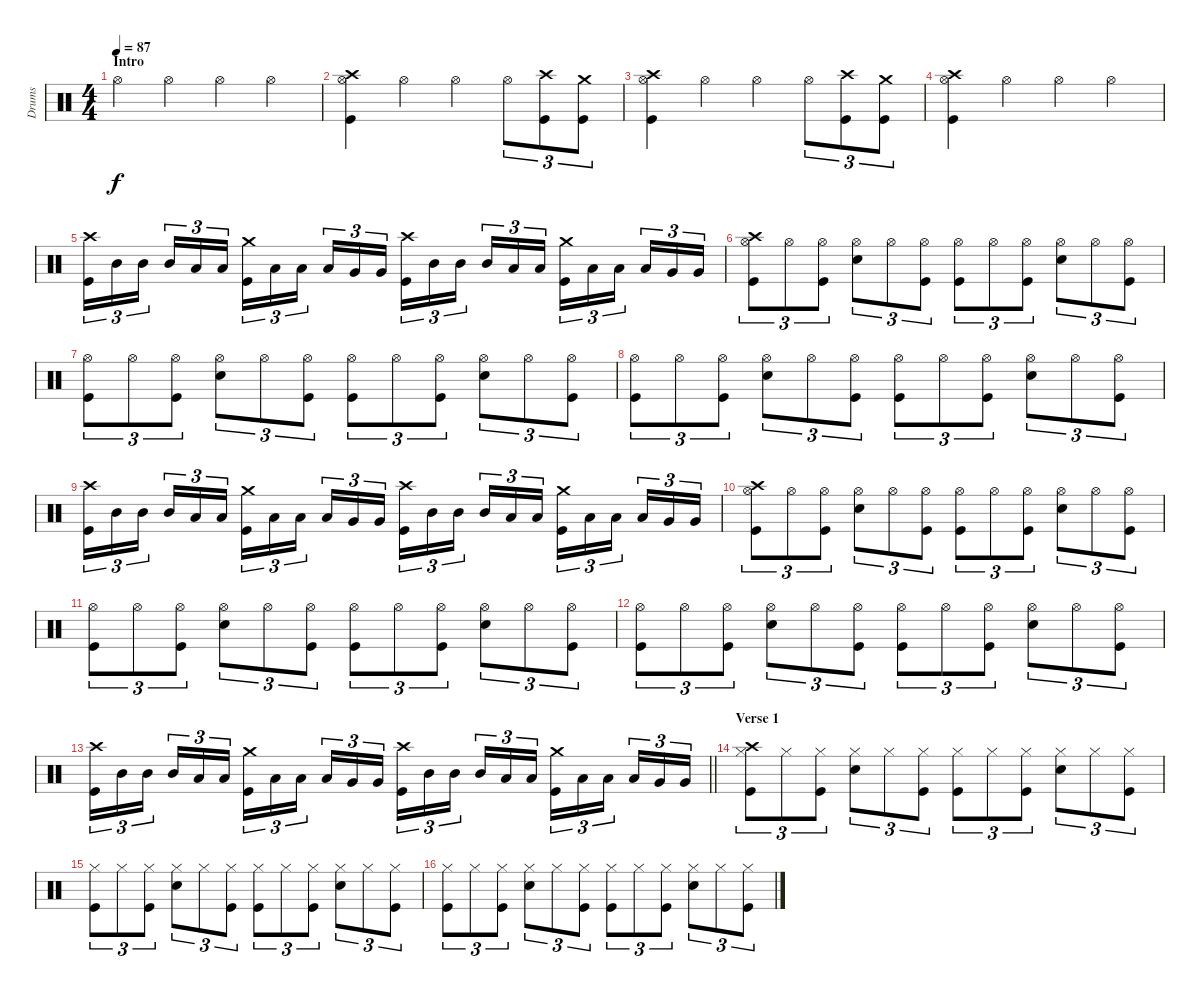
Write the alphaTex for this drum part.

\track ("Drums" "Drums") {instrument percussion}
\staff {score}
\articulation defaults
\ts (4 4)
\section ("" "Intro")
\tempo 87
\clef neutral
\ks c "Hi-Hat (open)".4{dy f} "Hi-Hat (open)".4 "Hi-Hat (open)".4 "Hi-Hat (open)".4
|
("Crash high (hit)" "Hi-Hat (open)" "Kick (hit)").4 "Hi-Hat (open)".4 "Hi-Hat (open)".4 "Hi-Hat (open)".8{tu (3 2)} ("Crash high (hit)" "Kick (hit)").8{tu (3 2)} ("Crash medium (hit)" "Kick (hit)").8{tu (3 2)} |
("Crash high (hit)" "Hi-Hat (open)" "Kick (hit)").4 "Hi-Hat (open)".4 "Hi-Hat (open)".4 "Hi-Hat (open)".8{tu (3 2)} ("Crash high (hit)" "Kick (hit)").8{tu (3 2)} ("Crash medium (hit)" "Kick (hit)").8{tu (3 2)} |
("Crash high (hit)" "Hi-Hat (open)" "Kick (hit)").4 "Hi-Hat (open)".4 "Hi-Hat (open)".4 "Hi-Hat (open)".4 |
("Crash high (hit)" "Kick (hit)").16{tu (3 2)} "Mid Tom (hit)".16{tu (3 2)} "Mid Tom (hit)".16{tu (3 2) beam splitsecondary} "Mid Tom (hit)".16{tu (3 2)} "Low Tom (hit)".16{tu (3 2)} "Low Tom (hit)".16{tu (3 2)} ("Crash medium (hit)" "Kick (hit)").16{tu (3 2)} "Low Tom (hit)".16{tu (3 2)} "Low Tom (hit)".16{tu (3 2) beam splitsecondary} "Low Tom (hit)".16{tu (3 2)} "Very Low Tom (hit)".16{tu (3 2)} "Very Low Tom (hit)".16{tu (3 2)} ("Crash high (hit)" "Kick (hit)").16{tu (3 2)} "Mid Tom (hit)".16{tu (3 2)} "Mid Tom (hit)".16{tu (3 2) beam splitsecondary} "Mid Tom (hit)".16{tu (3 2)} "Low Tom (hit)".16{tu (3 2)} "Low Tom (hit)".16{tu (3 2)} ("Crash medium (hit)" "Kick (hit)").16{tu (3 2)} "Low Tom (hit)".16{tu (3 2)} "Low Tom (hit)".16{tu (3 2) beam splitsecondary} "Low Tom (hit)".16{tu (3 2)} "Very Low Tom (hit)".16{tu (3 2)} "Very Low Tom (hit)".16{tu (3 2)} |
("Crash high (hit)" "Hi-Hat (open)" "Kick (hit)").8{tu (3 2)} "Hi-Hat (open)".8{tu (3 2)} ("Hi-Hat (open)" "Kick (hit)").8{tu (3 2)} ("Hi-Hat (open)" "Snare (hit) 2").8{tu (3 2)} "Hi-Hat (open)".8{tu (3 2)} ("Hi-Hat (open)" "Kick (hit)").8{tu (3 2)} ("Hi-Hat (open)" "Kick (hit)").8{tu (3 2)} "Hi-Hat (open)".8{tu (3 2)} ("Hi-Hat (open)" "Kick (hit)").8{tu (3 2)} ("Hi-Hat (open)" "Snare (hit) 2").8{tu (3 2)} "Hi-Hat (open)".8{tu (3 2)} ("Hi-Hat (open)" "Kick (hit)").8{tu (3 2)} |
("Hi-Hat (open)" "Kick (hit)").8{tu (3 2)} "Hi-Hat (open)".8{tu (3 2)} ("Hi-Hat (open)" "Kick (hit)").8{tu (3 2)} ("Hi-Hat (open)" "Snare (hit) 2").8{tu (3 2)} "Hi-Hat (open)".8{tu (3 2)} ("Hi-Hat (open)" "Kick (hit)").8{tu (3 2)} ("Hi-Hat (open)" "Kick (hit)").8{tu (3 2)} "Hi-Hat (open)".8{tu (3 2)} ("Hi-Hat (open)" "Kick (hit)").8{tu (3 2)} ("Hi-Hat (open)" "Snare (hit) 2").8{tu (3 2)} "Hi-Hat (open)".8{tu (3 2)} ("Hi-Hat (open)" "Kick (hit)").8{tu (3 2)} |
("Hi-Hat (open)" "Kick (hit)").8{tu (3 2)} "Hi-Hat (open)".8{tu (3 2)} ("Hi-Hat (open)" "Kick (hit)").8{tu (3 2)} ("Hi-Hat (open)" "Snare (hit) 2").8{tu (3 2)} "Hi-Hat (open)".8{tu (3 2)} ("Hi-Hat (open)" "Kick (hit)").8{tu (3 2)} ("Hi-Hat (open)" "Kick (hit)").8{tu (3 2)} "Hi-Hat (open)".8{tu (3 2)} ("Hi-Hat (open)" "Kick (hit)").8{tu (3 2)} ("Hi-Hat (open)" "Snare (hit) 2").8{tu (3 2)} "Hi-Hat (open)".8{tu (3 2)} ("Hi-Hat (open)" "Kick (hit)").8{tu (3 2)} |
("Crash high (hit)" "Kick (hit)").16{tu (3 2)} "Mid Tom (hit)".16{tu (3 2)} "Mid Tom (hit)".16{tu (3 2) beam splitsecondary} "Mid Tom (hit)".16{tu (3 2)} "Low Tom (hit)".16{tu (3 2)} "Low Tom (hit)".16{tu (3 2)} ("Crash medium (hit)" "Kick (hit)").16{tu (3 2)} "Low Tom (hit)".16{tu (3 2)} "Low Tom (hit)".16{tu (3 2) beam splitsecondary} "Low Tom (hit)".16{tu (3 2)} "Very Low Tom (hit)".16{tu (3 2)} "Very Low Tom (hit)".16{tu (3 2)} ("Crash high (hit)" "Kick (hit)").16{tu (3 2)} "Mid Tom (hit)".16{tu (3 2)} "Mid Tom (hit)".16{tu (3 2) beam splitsecondary} "Mid Tom (hit)".16{tu (3 2)} "Low Tom (hit)".16{tu (3 2)} "Low Tom (hit)".16{tu (3 2)} ("Crash medium (hit)" "Kick (hit)").16{tu (3 2)} "Low Tom (hit)".16{tu (3 2)} "Low Tom (hit)".16{tu (3 2) beam splitsecondary} "Low Tom (hit)".16{tu (3 2)} "Very Low Tom (hit)".16{tu (3 2)} "Very Low Tom (hit)".16{tu (3 2)} |
("Crash high (hit)" "Hi-Hat (open)" "Kick (hit)").8{tu (3 2)} "Hi-Hat (open)".8{tu (3 2)} ("Hi-Hat (open)" "Kick (hit)").8{tu (3 2)} ("Hi-Hat (open)" "Snare (hit) 2").8{tu (3 2)} "Hi-Hat (open)".8{tu (3 2)} ("Hi-Hat (open)" "Kick (hit)").8{tu (3 2)} ("Hi-Hat (open)" "Kick (hit)").8{tu (3 2)} "Hi-Hat (open)".8{tu (3 2)} ("Hi-Hat (open)" "Kick (hit)").8{tu (3 2)} ("Hi-Hat (open)" "Snare (hit) 2").8{tu (3 2)} "Hi-Hat (open)".8{tu (3 2)} ("Hi-Hat (open)" "Kick (hit)").8{tu (3 2)} |
("Hi-Hat (open)" "Kick (hit)").8{tu (3 2)} "Hi-Hat (open)".8{tu (3 2)} ("Hi-Hat (open)" "Kick (hit)").8{tu (3 2)} ("Hi-Hat (open)" "Snare (hit) 2").8{tu (3 2)} "Hi-Hat (open)".8{tu (3 2)} ("Hi-Hat (open)" "Kick (hit)").8{tu (3 2)} ("Hi-Hat (open)" "Kick (hit)").8{tu (3 2)} "Hi-Hat (open)".8{tu (3 2)} ("Hi-Hat (open)" "Kick (hit)").8{tu (3 2)} ("Hi-Hat (open)" "Snare (hit) 2").8{tu (3 2)} "Hi-Hat (open)".8{tu (3 2)} ("Hi-Hat (open)" "Kick (hit)").8{tu (3 2)} |
("Hi-Hat (open)" "Kick (hit)").8{tu (3 2)} "Hi-Hat (open)".8{tu (3 2)} ("Hi-Hat (open)" "Kick (hit)").8{tu (3 2)} ("Hi-Hat (open)" "Snare (hit) 2").8{tu (3 2)} "Hi-Hat (open)".8{tu (3 2)} ("Hi-Hat (open)" "Kick (hit)").8{tu (3 2)} ("Hi-Hat (open)" "Kick (hit)").8{tu (3 2)} "Hi-Hat (open)".8{tu (3 2)} ("Hi-Hat (open)" "Kick (hit)").8{tu (3 2)} ("Hi-Hat (open)" "Snare (hit) 2").8{tu (3 2)} "Hi-Hat (open)".8{tu (3 2)} ("Hi-Hat (open)" "Kick (hit)").8{tu (3 2)} |
\barLineRight lightlight
("Crash high (hit)" "Kick (hit)").16{tu (3 2)} "Mid Tom (hit)".16{tu (3 2)} "Mid Tom (hit)".16{tu (3 2) beam splitsecondary} "Mid Tom (hit)".16{tu (3 2)} "Low Tom (hit)".16{tu (3 2)} "Low Tom (hit)".16{tu (3 2)} ("Crash medium (hit)" "Kick (hit)").16{tu (3 2)} "Low Tom (hit)".16{tu (3 2)} "Low Tom (hit)".16{tu (3 2) beam splitsecondary} "Low Tom (hit)".16{tu (3 2)} "Very Low Tom (hit)".16{tu (3 2)} "Very Low Tom (hit)".16{tu (3 2)} ("Crash high (hit)" "Kick (hit)").16{tu (3 2)} "Mid Tom (hit)".16{tu (3 2)} "Mid Tom (hit)".16{tu (3 2) beam splitsecondary} "Mid Tom (hit)".16{tu (3 2)} "Low Tom (hit)".16{tu (3 2)} "Low Tom (hit)".16{tu (3 2)} ("Crash medium (hit)" "Kick (hit)").16{tu (3 2)} "Low Tom (hit)".16{tu (3 2)} "Low Tom (hit)".16{tu (3 2) beam splitsecondary} "Low Tom (hit)".16{tu (3 2)} "Very Low Tom (hit)".16{tu (3 2)} "Very Low Tom (hit)".16{tu (3 2)} |
\section ("" "Verse 1")
("Crash high (hit)" "Hi-Hat (closed)" "Kick (hit)").8{tu (3 2)} "Hi-Hat (closed)".8{tu (3 2)} ("Hi-Hat (closed)" "Kick (hit)").8{tu (3 2)} ("Hi-Hat (closed)" "Snare (hit) 2").8{tu (3 2)} "Hi-Hat (closed)".8{tu (3 2)} ("Hi-Hat (closed)" "Kick (hit)").8{tu (3 2)} ("Hi-Hat (closed)" "Kick (hit)").8{tu (3 2)} "Hi-Hat (closed)".8{tu (3 2)} ("Hi-Hat (closed)" "Kick (hit)").8{tu (3 2)} ("Hi-Hat (closed)" "Snare (hit) 2").8{tu (3 2)} "Hi-Hat (closed)".8{tu (3 2)} ("Hi-Hat (closed)" "Kick (hit)").8{tu (3 2)} |
("Hi-Hat (closed)" "Kick (hit)").8{tu (3 2)} "Hi-Hat (closed)".8{tu (3 2)} ("Hi-Hat (closed)" "Kick (hit)").8{tu (3 2)} ("Hi-Hat (closed)" "Snare (hit) 2").8{tu (3 2)} "Hi-Hat (closed)".8{tu (3 2)} ("Hi-Hat (closed)" "Kick (hit)").8{tu (3 2)} ("Hi-Hat (closed)" "Kick (hit)").8{tu (3 2)} "Hi-Hat (closed)".8{tu (3 2)} ("Hi-Hat (closed)" "Kick (hit)").8{tu (3 2)} ("Hi-Hat (closed)" "Snare (hit) 2").8{tu (3 2)} "Hi-Hat (closed)".8{tu (3 2)} ("Hi-Hat (closed)" "Kick (hit)").8{tu (3 2)} |
("Hi-Hat (closed)" "Kick (hit)").8{tu (3 2)} "Hi-Hat (closed)".8{tu (3 2)} ("Hi-Hat (closed)" "Kick (hit)").8{tu (3 2)} ("Hi-Hat (closed)" "Snare (hit) 2").8{tu (3 2)} "Hi-Hat (closed)".8{tu (3 2)} ("Hi-Hat (closed)" "Kick (hit)").8{tu (3 2)} ("Hi-Hat (closed)" "Kick (hit)").8{tu (3 2)} "Hi-Hat (closed)".8{tu (3 2)} ("Hi-Hat (closed)" "Kick (hit)").8{tu (3 2)} ("Hi-Hat (closed)" "Snare (hit) 2").8{tu (3 2)} "Hi-Hat (closed)".8{tu (3 2)} ("Hi-Hat (closed)" "Kick (hit)").8{tu (3 2)}
